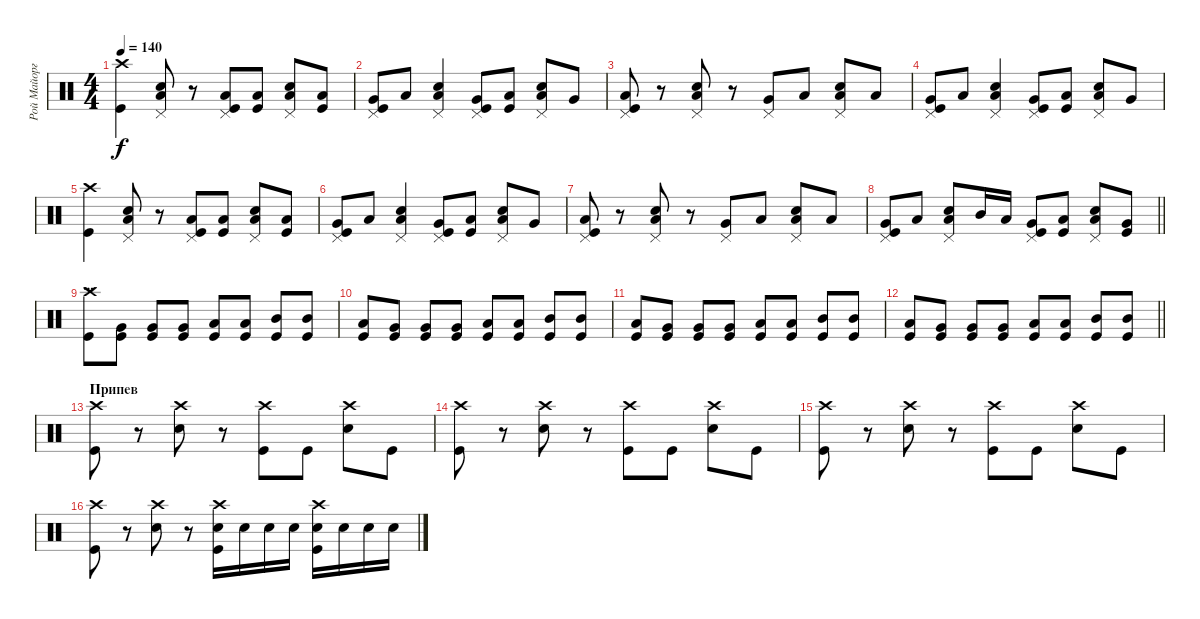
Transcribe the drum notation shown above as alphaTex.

\track ("Рой Майорга" "Рой Майорг") {instrument percussion}
\staff {score}
\articulation defaults
\ts (4 4)
\tempo 140
\clef neutral
\ks c
("Crash high (hit)" "Kick (hit)").4{dy f} ("Pedal Hi-Hat (hit)" "Low Tom (hit)" "Snare (hit) 2").8 r.8 ("Pedal Hi-Hat (hit)" "Low Tom (hit)" "Kick (hit)").8 ("Low Floor Tom (hit)" "Kick (hit)").8 ("Pedal Hi-Hat (hit)" "Low Tom (hit)" "Snare (hit) 2").8 ("Low Floor Tom (hit)" "Kick (hit)").8 |
("Pedal Hi-Hat (hit)" "Very Low Tom (hit)" "Kick (hit)").8 "Low Tom (hit)".8 ("Pedal Hi-Hat (hit)" "Low Tom (hit)" "Snare (hit) 2").4 ("Pedal Hi-Hat (hit)" "Very Low Tom (hit)" "Kick (hit)").8 ("Low Tom (hit)" "Kick (hit)").8 ("Pedal Hi-Hat (hit)" "Low Tom (hit)" "Snare (hit) 2").8 "Very Low Tom (hit)".8 |
("Pedal Hi-Hat (hit)" "Low Tom (hit)" "Kick (hit)").8 r.8 ("Pedal Hi-Hat (hit)" "Low Tom (hit)" "Snare (hit) 2").8 r.8 ("Pedal Hi-Hat (hit)" "Very Low Tom (hit)").8 "Low Tom (hit)".8 ("Pedal Hi-Hat (hit)" "Low Tom (hit)" "Snare (hit) 2").8 "Low Floor Tom (hit)".8 |
("Pedal Hi-Hat (hit)" "Very Low Tom (hit)" "Kick (hit)").8 "Low Tom (hit)".8 ("Pedal Hi-Hat (hit)" "Low Tom (hit)" "Snare (hit) 2").4 ("Pedal Hi-Hat (hit)" "Very Low Tom (hit)" "Kick (hit)").8 ("Low Tom (hit)" "Kick (hit)").8 ("Pedal Hi-Hat (hit)" "Low Tom (hit)" "Snare (hit) 2").8 "Very Low Tom (hit)".8 |
("Crash high (hit)" "Kick (hit)").4 ("Pedal Hi-Hat (hit)" "Low Tom (hit)" "Snare (hit) 2").8 r.8 ("Pedal Hi-Hat (hit)" "Low Tom (hit)" "Kick (hit)").8 ("Low Floor Tom (hit)" "Kick (hit)").8 ("Pedal Hi-Hat (hit)" "Low Tom (hit)" "Snare (hit) 2").8 ("Low Floor Tom (hit)" "Kick (hit)").8 |
("Pedal Hi-Hat (hit)" "Very Low Tom (hit)" "Kick (hit)").8 "Low Tom (hit)".8 ("Pedal Hi-Hat (hit)" "Low Tom (hit)" "Snare (hit) 2").4 ("Pedal Hi-Hat (hit)" "Very Low Tom (hit)" "Kick (hit)").8 ("Low Tom (hit)" "Kick (hit)").8 ("Pedal Hi-Hat (hit)" "Low Tom (hit)" "Snare (hit) 2").8 "Very Low Tom (hit)".8 |
("Pedal Hi-Hat (hit)" "Low Tom (hit)" "Kick (hit)").8 r.8 ("Pedal Hi-Hat (hit)" "Low Tom (hit)" "Snare (hit) 2").8 r.8 ("Pedal Hi-Hat (hit)" "Very Low Tom (hit)").8 "Low Tom (hit)".8 ("Pedal Hi-Hat (hit)" "Low Tom (hit)" "Snare (hit) 2").8 "Low Floor Tom (hit)".8 |
\barLineRight lightlight
("Pedal Hi-Hat (hit)" "Very Low Tom (hit)" "Kick (hit)").8 "Low Tom (hit)".8 ("Pedal Hi-Hat (hit)" "Low Tom (hit)" "Snare (hit) 2").8 "Mid Tom (hit)".16 "Low Tom (hit)".16 ("Pedal Hi-Hat (hit)" "Very Low Tom (hit)" "Kick (hit)").8 ("Low Tom (hit)" "Kick (hit)").8 ("Pedal Hi-Hat (hit)" "Low Tom (hit)" "Snare (hit) 2").8 ("Very Low Tom (hit)" "Kick (hit)").8 |
\section ("" "...")
("Crash high (hit)" "Kick (hit)").8 ("Very Low Tom (hit)" "Kick (hit)").8 ("Very Low Tom (hit)" "Kick (hit)").8 ("Very Low Tom (hit)" "Kick (hit)").8 ("Low Tom (hit)" "Kick (hit)").8 ("Low Tom (hit)" "Kick (hit)").8 ("Mid Tom (hit)" "Kick (hit)").8 ("Mid Tom (hit)" "Kick (hit)").8 |
("Low Tom (hit)" "Kick (hit)").8 ("Very Low Tom (hit)" "Kick (hit)").8 ("Very Low Tom (hit)" "Kick (hit)").8 ("Very Low Tom (hit)" "Kick (hit)").8 ("Low Tom (hit)" "Kick (hit)").8 ("Low Tom (hit)" "Kick (hit)").8 ("Mid Tom (hit)" "Kick (hit)").8 ("Mid Tom (hit)" "Kick (hit)").8 |
("Low Tom (hit)" "Kick (hit)").8 ("Very Low Tom (hit)" "Kick (hit)").8 ("Very Low Tom (hit)" "Kick (hit)").8 ("Very Low Tom (hit)" "Kick (hit)").8 ("Low Tom (hit)" "Kick (hit)").8 ("Low Tom (hit)" "Kick (hit)").8 ("Mid Tom (hit)" "Kick (hit)").8 ("Mid Tom (hit)" "Kick (hit)").8 |
\barLineRight lightlight
("Low Tom (hit)" "Kick (hit)").8 ("Very Low Tom (hit)" "Kick (hit)").8 ("Very Low Tom (hit)" "Kick (hit)").8 ("Very Low Tom (hit)" "Kick (hit)").8 ("Low Tom (hit)" "Kick (hit)").8 ("Low Tom (hit)" "Kick (hit)").8 ("Mid Tom (hit)" "Kick (hit)").8 ("Mid Tom (hit)" "Kick (hit)").8 |
\section ("" "Припев")
("Crash high (hit)" "Kick (hit)").8 r.8 ("Crash high (hit)" "Snare (hit) 2").8 r.8 ("Crash high (hit)" "Kick (hit)").8 "Kick (hit)".8 ("Crash high (hit)" "Snare (hit) 2").8 "Kick (hit)".8 |
("Crash high (hit)" "Kick (hit)").8 r.8 ("Crash high (hit)" "Snare (hit) 2").8 r.8 ("Crash high (hit)" "Kick (hit)").8 "Kick (hit)".8 ("Crash high (hit)" "Snare (hit) 2").8 "Kick (hit)".8 |
("Crash high (hit)" "Kick (hit)").8 r.8 ("Crash high (hit)" "Snare (hit) 2").8 r.8 ("Crash high (hit)" "Kick (hit)").8 "Kick (hit)".8 ("Crash high (hit)" "Snare (hit) 2").8 "Kick (hit)".8 |
("Crash high (hit)" "Kick (hit)").8 r.8 ("Crash high (hit)" "Snare (hit) 2").8 r.8 ("Crash high (hit)" "Snare (hit) 2" "Kick (hit)").16 "Snare (hit) 2".16 "Snare (hit) 2".16 "Snare (hit) 2".16 ("Crash high (hit)" "Snare (hit) 2" "Kick (hit)").16 "Snare (hit) 2".16 "Snare (hit) 2".16 "Snare (hit) 2".16
